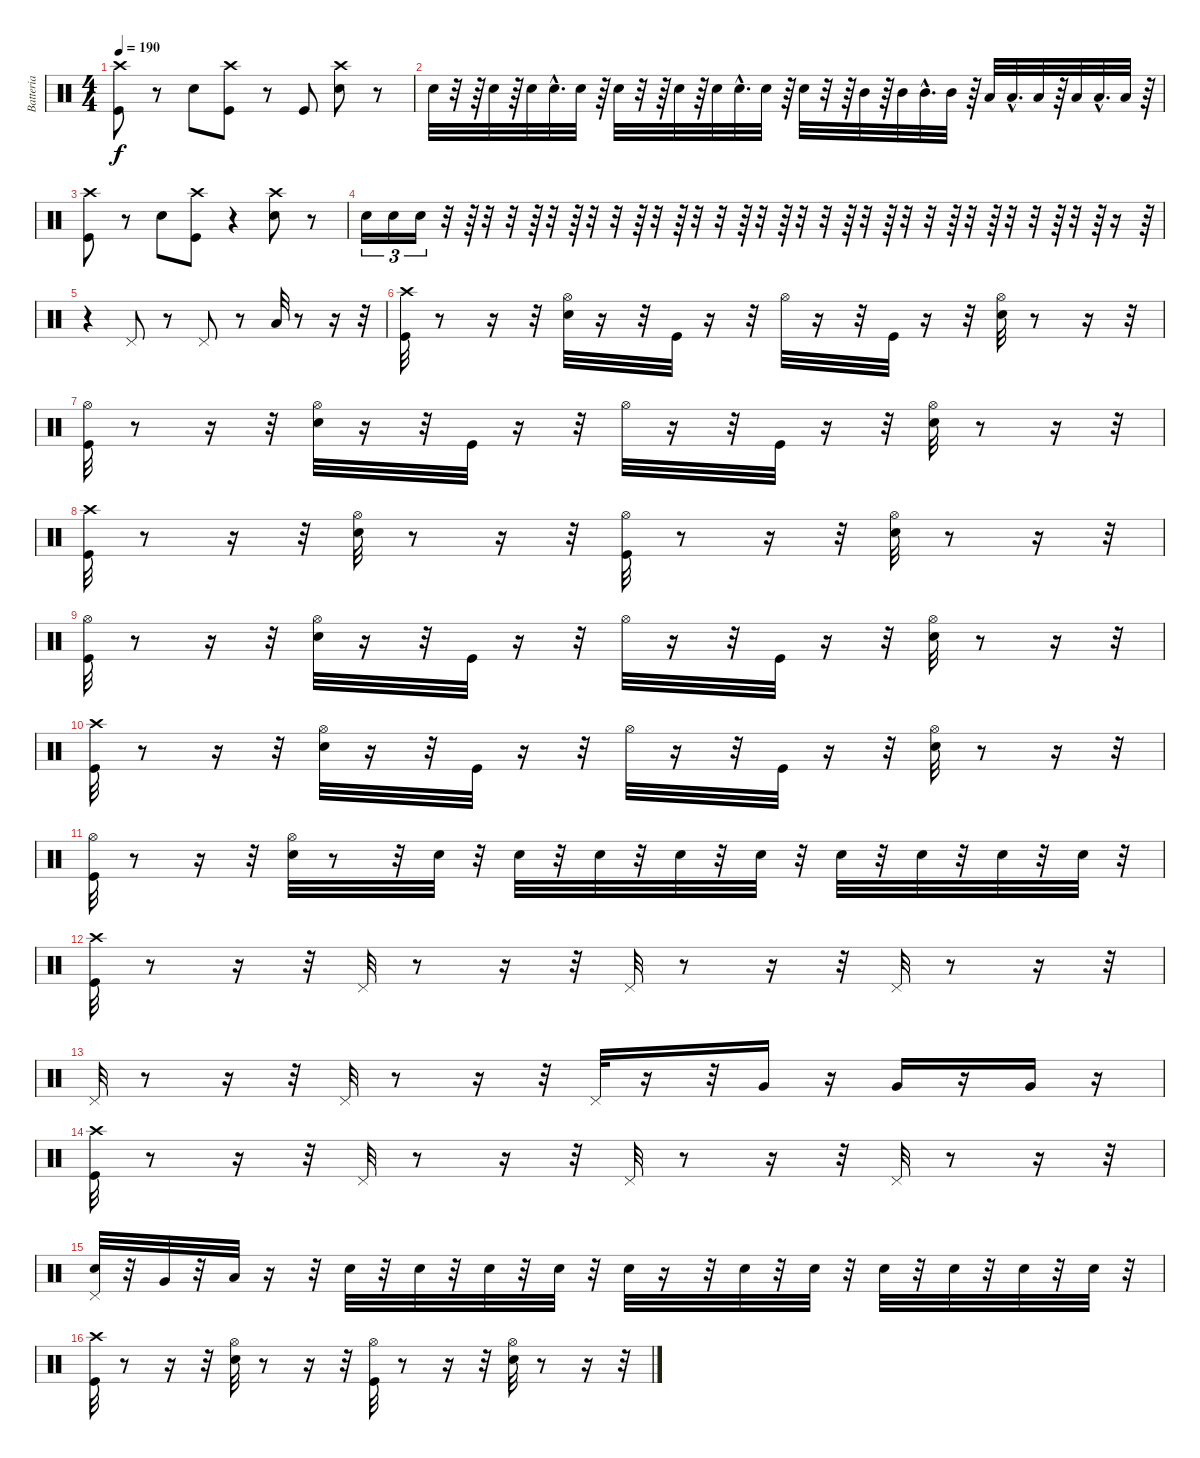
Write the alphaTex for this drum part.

\track ("Batteria" "Batteria") {instrument percussion}
\staff {score}
\articulation defaults
\ts (4 4)
\tempo 190
\clef neutral
\ks c
("Crash high (hit)" "Kick (hit)").8{dy f} r.8 "Snare (hit) 2".8 ("Crash high (hit)" "Kick (hit)").8 r.8 "Kick (hit)".8 ("Snare (hit) 2" "Crash high (hit)").8 r.8 |
"Snare (hit) 2".32 r.32 r.64 "Snare (hit) 2".32 r.64 "Snare (hit) 2".32 "Snare (hit) 2"{hac}.32{d} "Snare (hit) 2".32 r.64 "Snare (hit) 2".32 r.32 r.64 "Snare (hit) 2".32 r.64 "Snare (hit) 2".32 "Snare (hit) 2"{hac}.32{d} "Snare (hit) 2".32 r.64 "Snare (hit) 2".32 r.32 r.64 "Mid Tom (hit)".32 r.64 "Mid Tom (hit)".32 "Mid Tom (hit)"{hac}.32{d} "Mid Tom (hit)".32 r.64 "Low Tom (hit)".32 "Low Tom (hit)"{hac}.32{d} "Low Tom (hit)".32 r.64 "Low Tom (hit)".32 "Low Tom (hit)"{hac}.32{d} "Low Tom (hit)".32 r.64 |
("Crash high (hit)" "Kick (hit)").8 r.8 "Snare (hit) 2".8 ("Kick (hit)" "Crash high (hit)").8 r.4 ("Snare (hit) 2" "Crash high (hit)").8 r.8 |
"Snare (hit) 2".16{tu (3 2)} "Snare (hit) 2".16{tu (3 2)} "Snare (hit) 2".16{tu (3 2)} r.32 r.64 r.32 r.32 r.64 r.32 r.64 r.32 r.32 r.64 r.32 r.64 r.32 r.32 r.64 r.32 r.64 r.32 r.32 r.64 r.32 r.64 r.32 r.32 r.64 r.32 r.64 r.32 r.32 r.64 r.32 r.64 r.16 r.64 |
r.4 "Pedal Hi-Hat (hit)".8 r.8 "Pedal Hi-Hat (hit)".8 r.8 "Low Tom (hit)".32 r.8 r.16 r.32 |
("Crash high (hit)" "Kick (hit)").32 r.8 r.16 r.32 ("Snare (hit) 2" "Hi-Hat (open)").32 r.16 r.32 "Kick (hit)".32 r.16 r.32 "Hi-Hat (open)".32 r.16 r.32 "Kick (hit)".32 r.16 r.32 ("Snare (hit) 2" "Hi-Hat (open)").32 r.8 r.16 r.32 |
("Kick (hit)" "Hi-Hat (open)").32 r.8 r.16 r.32 ("Hi-Hat (open)" "Snare (hit) 2").32 r.16 r.32 "Kick (hit)".32 r.16 r.32 "Hi-Hat (open)".32 r.16 r.32 "Kick (hit)".32 r.16 r.32 ("Hi-Hat (open)" "Snare (hit) 2").32 r.8 r.16 r.32 |
("Kick (hit)" "Crash high (hit)").32 r.8 r.16 r.32 ("Snare (hit) 2" "Hi-Hat (open)").32 r.8 r.16 r.32 ("Hi-Hat (open)" "Kick (hit)").32 r.8 r.16 r.32 ("Snare (hit) 2" "Hi-Hat (open)").32 r.8 r.16 r.32 |
("Hi-Hat (open)" "Kick (hit)").32 r.8 r.16 r.32 ("Hi-Hat (open)" "Snare (hit) 2").32 r.16 r.32 "Kick (hit)".32 r.16 r.32 "Hi-Hat (open)".32 r.16 r.32 "Kick (hit)".32 r.16 r.32 ("Snare (hit) 2" "Hi-Hat (open)").32 r.8 r.16 r.32 |
("Kick (hit)" "Crash high (hit)").32 r.8 r.16 r.32 ("Snare (hit) 2" "Hi-Hat (open)").32 r.16 r.32 "Kick (hit)".32 r.16 r.32 "Hi-Hat (open)".32 r.16 r.32 "Kick (hit)".32 r.16 r.32 ("Snare (hit) 2" "Hi-Hat (open)").32 r.8 r.16 r.32 |
("Kick (hit)" "Hi-Hat (open)").32 r.8 r.16 r.32 ("Snare (hit) 2" "Hi-Hat (open)").32 r.8 r.32 "Snare (hit) 2".32 r.32 "Snare (hit) 2".32 r.32 "Snare (hit) 2".32 r.32 "Snare (hit) 2".32 r.32 "Snare (hit) 2".32 r.32 "Snare (hit) 2".32 r.32 "Snare (hit) 2".32 r.32 "Snare (hit) 2".32 r.32 "Snare (hit) 2".32 r.32 |
("Kick (hit)" "Crash high (hit)").32 r.8 r.16 r.32 "Pedal Hi-Hat (hit)".32 r.8 r.16 r.32 "Pedal Hi-Hat (hit)".32 r.8 r.16 r.32 "Pedal Hi-Hat (hit)".32 r.8 r.16 r.32 |
"Pedal Hi-Hat (hit)".32 r.8 r.16 r.32 "Pedal Hi-Hat (hit)".32 r.8 r.16 r.32 "Pedal Hi-Hat (hit)".32 r.16 r.32 "Very Low Tom (hit)".16 r.16 "Very Low Tom (hit)".16 r.16 "Very Low Tom (hit)".16 r.16 |
("Kick (hit)" "Crash high (hit)").32 r.8 r.16 r.32 "Pedal Hi-Hat (hit)".32 r.8 r.16 r.32 "Pedal Hi-Hat (hit)".32 r.8 r.16 r.32 "Pedal Hi-Hat (hit)".32 r.8 r.16 r.32 |
("Snare (hit) 2" "Pedal Hi-Hat (hit)").32 r.32 "Very Low Tom (hit)".32 r.32 "Low Floor Tom (hit)".32 r.16 r.32 "Snare (hit) 2".32 r.32 "Snare (hit) 2".32 r.32 "Snare (hit) 2".32 r.32 "Snare (hit) 2".32 r.32 "Snare (hit) 2".32 r.16 r.32 "Snare (hit) 2".32 r.32 "Snare (hit) 2".32 r.32 "Snare (hit) 2".32 r.32 "Snare (hit) 2".32 r.32 "Snare (hit) 2".32 r.32 "Snare (hit) 2".32 r.32 |
("Kick (hit)" "Crash high (hit)").32 r.8 r.16 r.32 ("Hi-Hat (open)" "Snare (hit) 2").32 r.8 r.16 r.32 ("Hi-Hat (open)" "Kick (hit)").32 r.8 r.16 r.32 ("Snare (hit) 2" "Hi-Hat (open)").32 r.8 r.16 r.32
